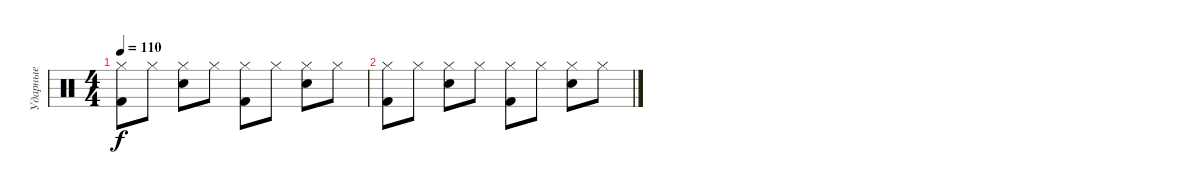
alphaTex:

\track ("Ударные" "Ударные") {instrument percussion}
\staff {score}
\articulation defaults
\ts (4 4)
\tempo 110
\clef neutral
\ks c
("Hi-Hat (closed)" "Kick (hit) 2").8{dy f} "Hi-Hat (closed)".8 ("Hi-Hat (closed)" "Snare (hit) 2").8 "Hi-Hat (closed)".8 ("Hi-Hat (closed)" "Kick (hit) 2").8 "Hi-Hat (closed)".8 ("Hi-Hat (closed)" "Snare (hit) 2").8 "Hi-Hat (closed)".8 |
("Hi-Hat (closed)" "Kick (hit) 2").8 "Hi-Hat (closed)".8 ("Hi-Hat (closed)" "Snare (hit) 2").8 "Hi-Hat (closed)".8 ("Hi-Hat (closed)" "Kick (hit) 2").8 "Hi-Hat (closed)".8 ("Hi-Hat (closed)" "Snare (hit) 2").8 "Hi-Hat (closed)".8
